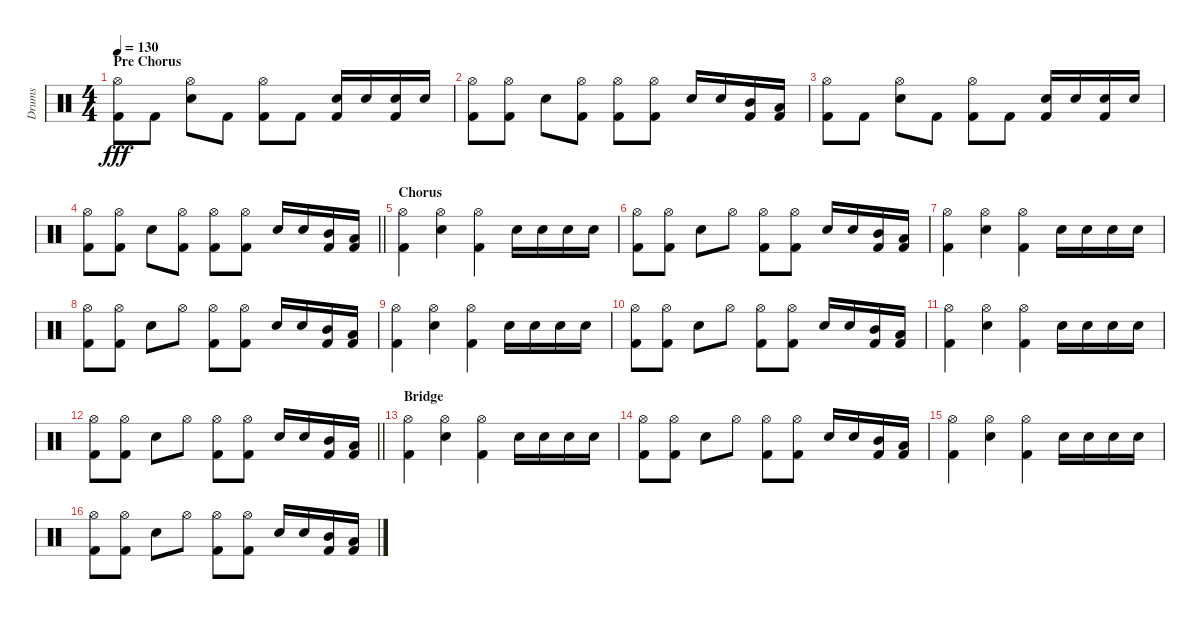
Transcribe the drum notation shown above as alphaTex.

\track ("Drums" "Drums") {instrument percussion}
\staff {score}
\articulation defaults
\ts (4 4)
\section ("" "Pre Chorus")
\tempo 130
\clef neutral
\ks c
("Hi-Hat (open)" "Kick (hit) 2").8{dy fff} "Kick (hit) 2".8 ("Hi-Hat (open)" "Electric Snare (hit)").8 "Kick (hit) 2".8 ("Hi-Hat (open)" "Kick (hit) 2").8 "Kick (hit) 2".8 ("Electric Snare (hit)" "Kick (hit) 2").16 "Electric Snare (hit)".16 ("Electric Snare (hit)" "Kick (hit) 2").16 "Electric Snare (hit)".16 |
("Hi-Hat (open)" "Kick (hit) 2").8 ("Hi-Hat (open)" "Kick (hit) 2").8 "Electric Snare (hit)".8 ("Hi-Hat (open)" "Kick (hit) 2").8 ("Hi-Hat (open)" "Kick (hit) 2").8 ("Hi-Hat (open)" "Kick (hit) 2").8 "Electric Snare (hit)".16 "Electric Snare (hit)".16 ("Mid Tom (hit)" "Kick (hit) 2").16 ("Low Tom (hit)" "Kick (hit) 2").16 |
("Hi-Hat (open)" "Kick (hit) 2").8 "Kick (hit) 2".8 ("Hi-Hat (open)" "Electric Snare (hit)").8 "Kick (hit) 2".8 ("Hi-Hat (open)" "Kick (hit) 2").8 "Kick (hit) 2".8 ("Electric Snare (hit)" "Kick (hit) 2").16 "Electric Snare (hit)".16 ("Electric Snare (hit)" "Kick (hit) 2").16 "Electric Snare (hit)".16 |
\barLineRight lightlight
("Hi-Hat (open)" "Kick (hit) 2").8 ("Hi-Hat (open)" "Kick (hit) 2").8 "Electric Snare (hit)".8 ("Hi-Hat (open)" "Kick (hit) 2").8 ("Hi-Hat (open)" "Kick (hit) 2").8 ("Hi-Hat (open)" "Kick (hit) 2").8 "Electric Snare (hit)".16 "Electric Snare (hit)".16 ("Mid Tom (hit)" "Kick (hit) 2").16 ("Low Tom (hit)" "Kick (hit) 2").16 |
\section ("" "Chorus")
("Hi-Hat (open)" "Kick (hit) 2").4 ("Hi-Hat (open)" "Electric Snare (hit)").4 ("Hi-Hat (open)" "Kick (hit) 2").4 "Electric Snare (hit)".16 "Electric Snare (hit)".16 "Electric Snare (hit)".16 "Electric Snare (hit)".16 |
("Hi-Hat (open)" "Kick (hit) 2").8 ("Hi-Hat (open)" "Kick (hit) 2").8 "Electric Snare (hit)".8 "Hi-Hat (open)".8 ("Hi-Hat (open)" "Kick (hit) 2").8 ("Hi-Hat (open)" "Kick (hit) 2").8 "Electric Snare (hit)".16 "Electric Snare (hit)".16 ("Mid Tom (hit)" "Kick (hit) 2").16 ("Low Tom (hit)" "Kick (hit) 2").16 |
("Hi-Hat (open)" "Kick (hit) 2").4 ("Hi-Hat (open)" "Electric Snare (hit)").4 ("Hi-Hat (open)" "Kick (hit) 2").4 "Electric Snare (hit)".16 "Electric Snare (hit)".16 "Electric Snare (hit)".16 "Electric Snare (hit)".16 |
("Hi-Hat (open)" "Kick (hit) 2").8 ("Hi-Hat (open)" "Kick (hit) 2").8 "Electric Snare (hit)".8 "Hi-Hat (open)".8 ("Hi-Hat (open)" "Kick (hit) 2").8 ("Hi-Hat (open)" "Kick (hit) 2").8 "Electric Snare (hit)".16 "Electric Snare (hit)".16 ("Mid Tom (hit)" "Kick (hit) 2").16 ("Low Tom (hit)" "Kick (hit) 2").16 |
("Hi-Hat (open)" "Kick (hit) 2").4 ("Hi-Hat (open)" "Electric Snare (hit)").4 ("Hi-Hat (open)" "Kick (hit) 2").4 "Electric Snare (hit)".16 "Electric Snare (hit)".16 "Electric Snare (hit)".16 "Electric Snare (hit)".16 |
("Hi-Hat (open)" "Kick (hit) 2").8 ("Hi-Hat (open)" "Kick (hit) 2").8 "Electric Snare (hit)".8 "Hi-Hat (open)".8 ("Hi-Hat (open)" "Kick (hit) 2").8 ("Hi-Hat (open)" "Kick (hit) 2").8 "Electric Snare (hit)".16 "Electric Snare (hit)".16 ("Mid Tom (hit)" "Kick (hit) 2").16 ("Low Tom (hit)" "Kick (hit) 2").16 |
("Hi-Hat (open)" "Kick (hit) 2").4 ("Hi-Hat (open)" "Electric Snare (hit)").4 ("Hi-Hat (open)" "Kick (hit) 2").4 "Electric Snare (hit)".16 "Electric Snare (hit)".16 "Electric Snare (hit)".16 "Electric Snare (hit)".16 |
\barLineRight lightlight
("Hi-Hat (open)" "Kick (hit) 2").8 ("Hi-Hat (open)" "Kick (hit) 2").8 "Electric Snare (hit)".8 "Hi-Hat (open)".8 ("Hi-Hat (open)" "Kick (hit) 2").8 ("Hi-Hat (open)" "Kick (hit) 2").8 "Electric Snare (hit)".16 "Electric Snare (hit)".16 ("Mid Tom (hit)" "Kick (hit) 2").16 ("Low Tom (hit)" "Kick (hit) 2").16 |
\section ("" "Bridge")
("Hi-Hat (open)" "Kick (hit) 2").4 ("Hi-Hat (open)" "Electric Snare (hit)").4 ("Hi-Hat (open)" "Kick (hit) 2").4 "Electric Snare (hit)".16 "Electric Snare (hit)".16 "Electric Snare (hit)".16 "Electric Snare (hit)".16 |
("Hi-Hat (open)" "Kick (hit) 2").8 ("Hi-Hat (open)" "Kick (hit) 2").8 "Electric Snare (hit)".8 "Hi-Hat (open)".8 ("Hi-Hat (open)" "Kick (hit) 2").8 ("Hi-Hat (open)" "Kick (hit) 2").8 "Electric Snare (hit)".16 "Electric Snare (hit)".16 ("Mid Tom (hit)" "Kick (hit) 2").16 ("Low Tom (hit)" "Kick (hit) 2").16 |
("Hi-Hat (open)" "Kick (hit) 2").4 ("Hi-Hat (open)" "Electric Snare (hit)").4 ("Hi-Hat (open)" "Kick (hit) 2").4 "Electric Snare (hit)".16 "Electric Snare (hit)".16 "Electric Snare (hit)".16 "Electric Snare (hit)".16 |
("Hi-Hat (open)" "Kick (hit) 2").8 ("Hi-Hat (open)" "Kick (hit) 2").8 "Electric Snare (hit)".8 "Hi-Hat (open)".8 ("Hi-Hat (open)" "Kick (hit) 2").8 ("Hi-Hat (open)" "Kick (hit) 2").8 "Electric Snare (hit)".16 "Electric Snare (hit)".16 ("Mid Tom (hit)" "Kick (hit) 2").16 ("Low Tom (hit)" "Kick (hit) 2").16
